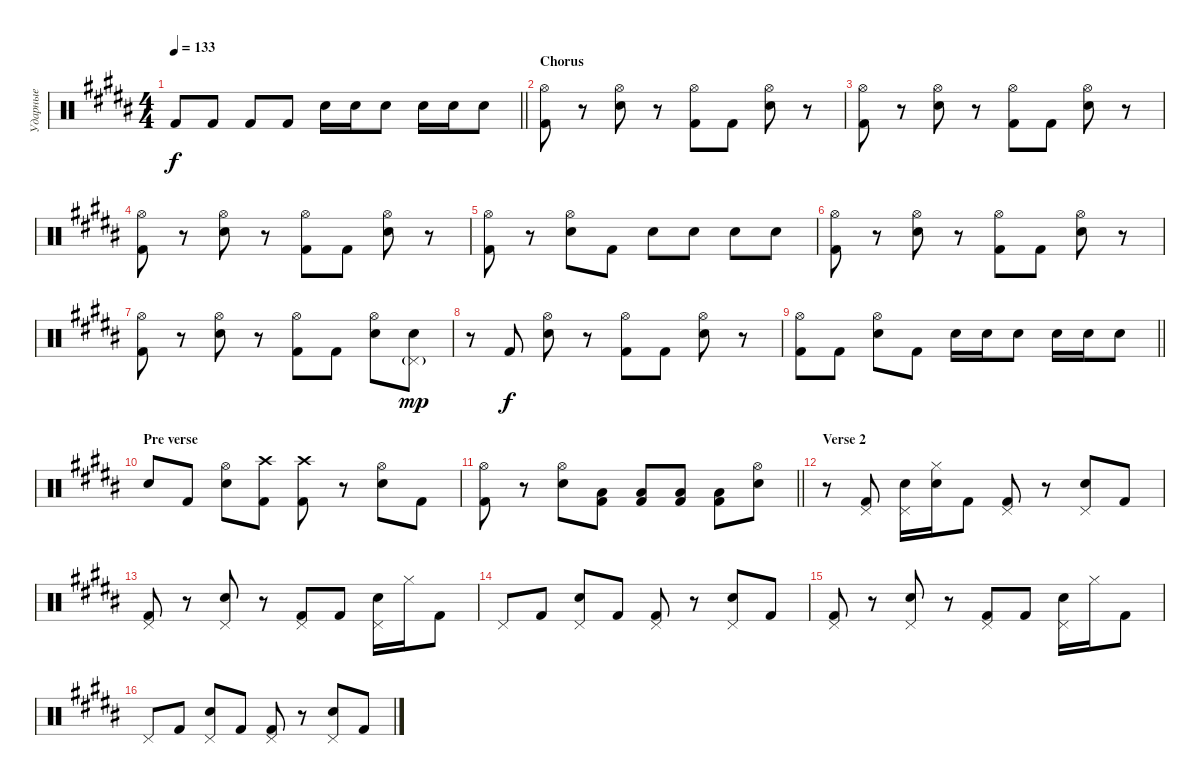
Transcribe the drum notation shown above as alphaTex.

\track ("Ударные" "Ударные") {instrument percussion}
\staff {score}
\articulation defaults
\ts (4 4)
\tempo 133
\clef neutral
\barLineRight lightlight
\ks b "Kick (hit) 2".8{dy f} "Kick (hit) 2".8 "Kick (hit) 2".8 "Kick (hit) 2".8 "Electric Snare (hit)".16 "Electric Snare (hit)".16 "Electric Snare (hit)".8 "Electric Snare (hit)".16 "Electric Snare (hit)".16 "Electric Snare (hit)".8
|
\section ("" "Chorus")
("Hi-Hat (open)" "Kick (hit) 2").8 r.8 ("Hi-Hat (open)" "Electric Snare (hit)").8 r.8 ("Hi-Hat (open)" "Kick (hit) 2").8 "Kick (hit) 2".8 ("Hi-Hat (open)" "Electric Snare (hit)").8 r.8 |
("Hi-Hat (open)" "Kick (hit) 2").8 r.8 ("Hi-Hat (open)" "Electric Snare (hit)").8 r.8 ("Hi-Hat (open)" "Kick (hit) 2").8 "Kick (hit) 2".8 ("Hi-Hat (open)" "Electric Snare (hit)").8 r.8 |
("Hi-Hat (open)" "Kick (hit) 2").8 r.8 ("Hi-Hat (open)" "Electric Snare (hit)").8 r.8 ("Hi-Hat (open)" "Kick (hit) 2").8 "Kick (hit) 2".8 ("Hi-Hat (open)" "Electric Snare (hit)").8 r.8 |
("Hi-Hat (open)" "Kick (hit) 2").8 r.8 ("Hi-Hat (open)" "Electric Snare (hit)").8 "Kick (hit) 2".8 "Electric Snare (hit)".8 "Electric Snare (hit)".8 "Electric Snare (hit)".8 "Electric Snare (hit)".8 |
("Hi-Hat (open)" "Kick (hit) 2").8 r.8 ("Hi-Hat (open)" "Electric Snare (hit)").8 r.8 ("Hi-Hat (open)" "Kick (hit) 2").8 "Kick (hit) 2".8 ("Hi-Hat (open)" "Electric Snare (hit)").8 r.8 |
("Hi-Hat (open)" "Kick (hit) 2").8 r.8 ("Hi-Hat (open)" "Electric Snare (hit)").8 r.8 ("Hi-Hat (open)" "Kick (hit) 2").8 "Kick (hit) 2".8 ("Hi-Hat (open)" "Electric Snare (hit)").8 ("Pedal Hi-Hat (hit)"{g} "Electric Snare (hit)").8{dy mp} |
r.8 "Kick (hit) 2".8{dy f} ("Hi-Hat (open)" "Electric Snare (hit)").8 r.8 ("Hi-Hat (open)" "Kick (hit) 2").8 "Kick (hit) 2".8 ("Hi-Hat (open)" "Electric Snare (hit)").8 r.8 |
\barLineRight lightlight
("Hi-Hat (open)" "Kick (hit) 2").8 "Kick (hit) 2".8 ("Hi-Hat (open)" "Electric Snare (hit)").8 "Kick (hit) 2".8 "Electric Snare (hit)".16 "Electric Snare (hit)".16 "Electric Snare (hit)".8 "Electric Snare (hit)".16 "Electric Snare (hit)".16 "Electric Snare (hit)".8 |
\section ("" "Pre verse")
"Electric Snare (hit)".8 "Kick (hit) 2".8 ("Hi-Hat (open)" "Electric Snare (hit)").8 ("Crash high (hit)" "Kick (hit) 2").8 ("Crash high (hit)" "Kick (hit) 2").8 r.8 ("Hi-Hat (open)" "Electric Snare (hit)").8 "Kick (hit) 2".8 |
\barLineRight lightlight
("Hi-Hat (open)" "Kick (hit) 2").8 r.8 ("Hi-Hat (open)" "Electric Snare (hit)").8 ("Low Tom (hit)" "Kick (hit) 2").8 ("Low Tom (hit)" "Kick (hit) 2").8 ("Low Tom (hit)" "Kick (hit) 2").8 ("Low Tom (hit)" "Kick (hit) 2").8 ("Hi-Hat (open)" "Electric Snare (hit)").8 |
\section ("" "Verse 2")
r.8 ("Pedal Hi-Hat (hit)" "Kick (hit) 2").8 ("Pedal Hi-Hat (hit)" "Electric Snare (hit)").16 ("Hi-Hat (closed)" "Electric Snare (hit)").16 "Kick (hit) 2".8 ("Pedal Hi-Hat (hit)" "Kick (hit) 2").8 r.8 ("Pedal Hi-Hat (hit)" "Electric Snare (hit)").8 "Kick (hit) 2".8 |
("Pedal Hi-Hat (hit)" "Kick (hit) 2").8 r.8 ("Pedal Hi-Hat (hit)" "Electric Snare (hit)").8 r.8 ("Pedal Hi-Hat (hit)" "Kick (hit) 2").8 "Kick (hit) 2".8 ("Pedal Hi-Hat (hit)" "Electric Snare (hit)").16 "Hi-Hat (closed)".16 "Kick (hit) 2".8 |
"Pedal Hi-Hat (hit)".8 "Kick (hit) 2".8 ("Pedal Hi-Hat (hit)" "Electric Snare (hit)").8 "Kick (hit) 2".8 ("Pedal Hi-Hat (hit)" "Kick (hit) 2").8 r.8 ("Pedal Hi-Hat (hit)" "Electric Snare (hit)").8 "Kick (hit) 2".8 |
("Pedal Hi-Hat (hit)" "Kick (hit) 2").8 r.8 ("Pedal Hi-Hat (hit)" "Electric Snare (hit)").8 r.8 ("Pedal Hi-Hat (hit)" "Kick (hit) 2").8 "Kick (hit) 2".8 ("Pedal Hi-Hat (hit)" "Electric Snare (hit)").16 "Hi-Hat (closed)".16 "Kick (hit) 2".8 |
"Pedal Hi-Hat (hit)".8 "Kick (hit) 2".8 ("Pedal Hi-Hat (hit)" "Electric Snare (hit)").8 "Kick (hit) 2".8 ("Pedal Hi-Hat (hit)" "Kick (hit) 2").8 r.8 ("Pedal Hi-Hat (hit)" "Electric Snare (hit)").8 "Kick (hit) 2".8
